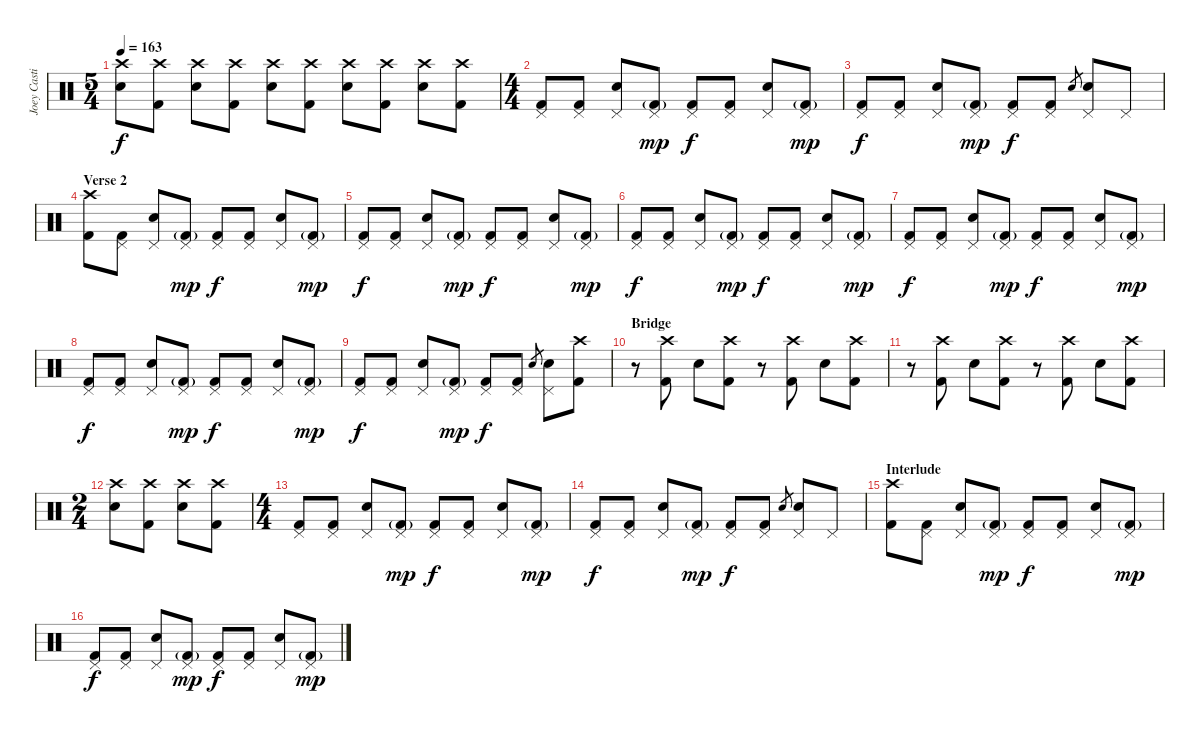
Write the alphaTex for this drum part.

\track ("Joey Castillo" "Joey Casti") {instrument percussion}
\staff {score}
\articulation defaults
\ts (5 4)
\tempo 163
\clef neutral
\ks c
("Crash high (hit)" "Electric Snare (hit)").8{dy f} ("Crash high (hit)" "Kick (hit) 2").8 ("Crash high (hit)" "Electric Snare (hit)").8 ("Crash high (hit)" "Kick (hit) 2").8 ("Crash high (hit)" "Electric Snare (hit)").8 ("Crash high (hit)" "Kick (hit) 2").8 ("Crash high (hit)" "Electric Snare (hit)").8 ("Crash high (hit)" "Kick (hit) 2").8 ("Crash high (hit)" "Electric Snare (hit)").8 ("Crash high (hit)" "Kick (hit) 2").8 |
\ts (4 4)
("Pedal Hi-Hat (hit)" "Kick (hit) 2").8 ("Pedal Hi-Hat (hit)" "Kick (hit) 2").8 ("Pedal Hi-Hat (hit)" "Electric Snare (hit)").8 ("Pedal Hi-Hat (hit)" "Kick (hit) 2"{g}).8{dy mp} ("Pedal Hi-Hat (hit)" "Kick (hit) 2").8{dy f} ("Pedal Hi-Hat (hit)" "Kick (hit) 2").8 ("Pedal Hi-Hat (hit)" "Electric Snare (hit)").8 ("Pedal Hi-Hat (hit)" "Kick (hit) 2"{g}).8{dy mp} |
("Pedal Hi-Hat (hit)" "Kick (hit) 2").8{dy f} ("Pedal Hi-Hat (hit)" "Kick (hit) 2").8 ("Pedal Hi-Hat (hit)" "Electric Snare (hit)").8 ("Pedal Hi-Hat (hit)" "Kick (hit) 2"{g}).8{dy mp} ("Pedal Hi-Hat (hit)" "Kick (hit) 2").8{dy f} ("Pedal Hi-Hat (hit)" "Kick (hit) 2").8 "Electric Snare (hit)".8{gr} ("Pedal Hi-Hat (hit)" "Electric Snare (hit)").8 "Pedal Hi-Hat (hit)".8 |
\section ("" "Verse 2")
("Crash high (hit)" "Kick (hit) 2").8 ("Pedal Hi-Hat (hit)" "Kick (hit) 2").8 ("Pedal Hi-Hat (hit)" "Electric Snare (hit)").8 ("Pedal Hi-Hat (hit)" "Kick (hit) 2"{g}).8{dy mp} ("Pedal Hi-Hat (hit)" "Kick (hit) 2").8{dy f} ("Pedal Hi-Hat (hit)" "Kick (hit) 2").8 ("Pedal Hi-Hat (hit)" "Electric Snare (hit)").8 ("Pedal Hi-Hat (hit)" "Kick (hit) 2"{g}).8{dy mp} |
("Pedal Hi-Hat (hit)" "Kick (hit) 2").8{dy f} ("Pedal Hi-Hat (hit)" "Kick (hit) 2").8 ("Pedal Hi-Hat (hit)" "Electric Snare (hit)").8 ("Pedal Hi-Hat (hit)" "Kick (hit) 2"{g}).8{dy mp} ("Pedal Hi-Hat (hit)" "Kick (hit) 2").8{dy f} ("Pedal Hi-Hat (hit)" "Kick (hit) 2").8 ("Pedal Hi-Hat (hit)" "Electric Snare (hit)").8 ("Pedal Hi-Hat (hit)" "Kick (hit) 2"{g}).8{dy mp} |
("Pedal Hi-Hat (hit)" "Kick (hit) 2").8{dy f} ("Pedal Hi-Hat (hit)" "Kick (hit) 2").8 ("Pedal Hi-Hat (hit)" "Electric Snare (hit)").8 ("Pedal Hi-Hat (hit)" "Kick (hit) 2"{g}).8{dy mp} ("Pedal Hi-Hat (hit)" "Kick (hit) 2").8{dy f} ("Pedal Hi-Hat (hit)" "Kick (hit) 2").8 ("Pedal Hi-Hat (hit)" "Electric Snare (hit)").8 ("Pedal Hi-Hat (hit)" "Kick (hit) 2"{g}).8{dy mp} |
("Pedal Hi-Hat (hit)" "Kick (hit) 2").8{dy f} ("Pedal Hi-Hat (hit)" "Kick (hit) 2").8 ("Pedal Hi-Hat (hit)" "Electric Snare (hit)").8 ("Pedal Hi-Hat (hit)" "Kick (hit) 2"{g}).8{dy mp} ("Pedal Hi-Hat (hit)" "Kick (hit) 2").8{dy f} ("Pedal Hi-Hat (hit)" "Kick (hit) 2").8 ("Pedal Hi-Hat (hit)" "Electric Snare (hit)").8 ("Pedal Hi-Hat (hit)" "Kick (hit) 2"{g}).8{dy mp} |
("Pedal Hi-Hat (hit)" "Kick (hit) 2").8{dy f} ("Pedal Hi-Hat (hit)" "Kick (hit) 2").8 ("Pedal Hi-Hat (hit)" "Electric Snare (hit)").8 ("Pedal Hi-Hat (hit)" "Kick (hit) 2"{g}).8{dy mp} ("Pedal Hi-Hat (hit)" "Kick (hit) 2").8{dy f} ("Pedal Hi-Hat (hit)" "Kick (hit) 2").8 ("Pedal Hi-Hat (hit)" "Electric Snare (hit)").8 ("Pedal Hi-Hat (hit)" "Kick (hit) 2"{g}).8{dy mp} |
("Pedal Hi-Hat (hit)" "Kick (hit) 2").8{dy f} ("Pedal Hi-Hat (hit)" "Kick (hit) 2").8 ("Pedal Hi-Hat (hit)" "Electric Snare (hit)").8 ("Pedal Hi-Hat (hit)" "Kick (hit) 2"{g}).8{dy mp} ("Pedal Hi-Hat (hit)" "Kick (hit) 2").8{dy f} ("Pedal Hi-Hat (hit)" "Kick (hit) 2").8 "Electric Snare (hit)".8{gr} ("Pedal Hi-Hat (hit)" "Electric Snare (hit)").8 ("Crash high (hit)" "Kick (hit) 2").8 |
\section ("" "Bridge")
r.8 ("Crash high (hit)" "Kick (hit) 2").8 "Electric Snare (hit)".8 ("Crash high (hit)" "Kick (hit) 2").8 r.8 ("Crash high (hit)" "Kick (hit) 2").8 "Electric Snare (hit)".8 ("Crash high (hit)" "Kick (hit) 2").8 |
r.8 ("Crash high (hit)" "Kick (hit) 2").8 "Electric Snare (hit)".8 ("Crash high (hit)" "Kick (hit) 2").8 r.8 ("Crash high (hit)" "Kick (hit) 2").8 "Electric Snare (hit)".8 ("Crash high (hit)" "Kick (hit) 2").8 |
\ts (2 4)
("Crash high (hit)" "Electric Snare (hit)").8 ("Crash high (hit)" "Kick (hit) 2").8 ("Crash high (hit)" "Electric Snare (hit)").8 ("Crash high (hit)" "Kick (hit) 2").8 |
\ts (4 4)
("Pedal Hi-Hat (hit)" "Kick (hit) 2").8 ("Pedal Hi-Hat (hit)" "Kick (hit) 2").8 ("Pedal Hi-Hat (hit)" "Electric Snare (hit)").8 ("Pedal Hi-Hat (hit)" "Kick (hit) 2"{g}).8{dy mp} ("Pedal Hi-Hat (hit)" "Kick (hit) 2").8{dy f} ("Pedal Hi-Hat (hit)" "Kick (hit) 2").8 ("Pedal Hi-Hat (hit)" "Electric Snare (hit)").8 ("Pedal Hi-Hat (hit)" "Kick (hit) 2"{g}).8{dy mp} |
("Pedal Hi-Hat (hit)" "Kick (hit) 2").8{dy f} ("Pedal Hi-Hat (hit)" "Kick (hit) 2").8 ("Pedal Hi-Hat (hit)" "Electric Snare (hit)").8 ("Pedal Hi-Hat (hit)" "Kick (hit) 2"{g}).8{dy mp} ("Pedal Hi-Hat (hit)" "Kick (hit) 2").8{dy f} ("Pedal Hi-Hat (hit)" "Kick (hit) 2").8 "Electric Snare (hit)".8{gr} ("Pedal Hi-Hat (hit)" "Electric Snare (hit)").8 "Pedal Hi-Hat (hit)".8 |
\section ("" "Interlude")
("Crash high (hit)" "Kick (hit) 2").8 ("Pedal Hi-Hat (hit)" "Kick (hit) 2").8 ("Pedal Hi-Hat (hit)" "Electric Snare (hit)").8 ("Pedal Hi-Hat (hit)" "Kick (hit) 2"{g}).8{dy mp} ("Pedal Hi-Hat (hit)" "Kick (hit) 2").8{dy f} ("Pedal Hi-Hat (hit)" "Kick (hit) 2").8 ("Pedal Hi-Hat (hit)" "Electric Snare (hit)").8 ("Pedal Hi-Hat (hit)" "Kick (hit) 2"{g}).8{dy mp} |
("Pedal Hi-Hat (hit)" "Kick (hit) 2").8{dy f} ("Pedal Hi-Hat (hit)" "Kick (hit) 2").8 ("Pedal Hi-Hat (hit)" "Electric Snare (hit)").8 ("Pedal Hi-Hat (hit)" "Kick (hit) 2"{g}).8{dy mp} ("Pedal Hi-Hat (hit)" "Kick (hit) 2").8{dy f} ("Pedal Hi-Hat (hit)" "Kick (hit) 2").8 ("Pedal Hi-Hat (hit)" "Electric Snare (hit)").8 ("Pedal Hi-Hat (hit)" "Kick (hit) 2"{g}).8{dy mp}
